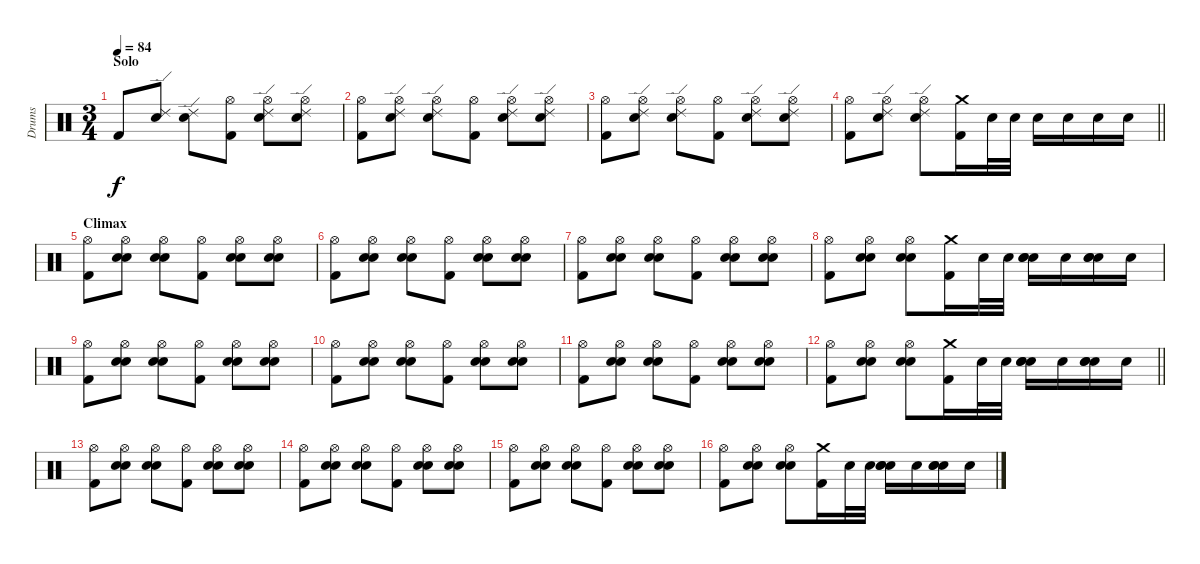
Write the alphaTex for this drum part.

\track ("Drums" "Drums") {instrument percussion}
\staff {score}
\articulation defaults
\ts (3 4)
\section ("" "Solo")
\tempo 84
\clef neutral
\ks c "Kick (hit) 2".8{dy f}
("Ride (edge) 2" "Electric Snare (hit)").8 ("Ride (edge) 2" "Electric Snare (hit)").8 ("Hi-Hat (open)" "Kick (hit) 2").8 ("Ride (edge) 2" "Hi-Hat (open)" "Electric Snare (hit)").8 ("Ride (edge) 2" "Hi-Hat (open)" "Electric Snare (hit)").8 |
("Hi-Hat (open)" "Kick (hit) 2").8 ("Ride (edge) 2" "Hi-Hat (open)" "Electric Snare (hit)").8 ("Ride (edge) 2" "Hi-Hat (open)" "Electric Snare (hit)").8 ("Hi-Hat (open)" "Kick (hit) 2").8 ("Ride (edge) 2" "Hi-Hat (open)" "Electric Snare (hit)").8 ("Ride (edge) 2" "Hi-Hat (open)" "Electric Snare (hit)").8 |
("Hi-Hat (open)" "Kick (hit) 2").8 ("Ride (edge) 2" "Hi-Hat (open)" "Electric Snare (hit)").8 ("Ride (edge) 2" "Hi-Hat (open)" "Electric Snare (hit)").8 ("Hi-Hat (open)" "Kick (hit) 2").8 ("Ride (edge) 2" "Hi-Hat (open)" "Electric Snare (hit)").8 ("Ride (edge) 2" "Hi-Hat (open)" "Electric Snare (hit)").8 |
\barLineRight lightlight
("Hi-Hat (open)" "Kick (hit) 2").8 ("Ride (edge) 2" "Hi-Hat (open)" "Electric Snare (hit)").8 ("Ride (edge) 2" "Hi-Hat (open)" "Electric Snare (hit)").8 ("Crash medium (hit)" "Kick (hit) 2").16 "Electric Snare (hit)".32 "Electric Snare (hit)".32 "Electric Snare (hit)".16 "Electric Snare (hit)".16 "Electric Snare (hit)".16 "Electric Snare (hit)".16 |
\section ("" "Climax")
("Hi-Hat (open)" "Kick (hit) 2").8 ("Hi-Hat (open)" "Hand Clap (hit)" "Hand Clap (hit)").8{bd 60} ("Hi-Hat (open)" "Hand Clap (hit)" "Hand Clap (hit)").8{bd 60} ("Hi-Hat (open)" "Kick (hit) 2").8 ("Hi-Hat (open)" "Hand Clap (hit)" "Hand Clap (hit)").8{bd 60} ("Hi-Hat (open)" "Hand Clap (hit)" "Hand Clap (hit)").8{bd 60} |
("Hi-Hat (open)" "Kick (hit) 2").8 ("Hi-Hat (open)" "Hand Clap (hit)" "Hand Clap (hit)").8{bd 60} ("Hi-Hat (open)" "Hand Clap (hit)" "Hand Clap (hit)").8{bd 60} ("Hi-Hat (open)" "Kick (hit) 2").8 ("Hi-Hat (open)" "Hand Clap (hit)" "Hand Clap (hit)").8{bd 60} ("Hi-Hat (open)" "Hand Clap (hit)" "Hand Clap (hit)").8{bd 60} |
("Hi-Hat (open)" "Kick (hit) 2").8 ("Hi-Hat (open)" "Hand Clap (hit)" "Hand Clap (hit)").8{bd 60} ("Hi-Hat (open)" "Hand Clap (hit)" "Hand Clap (hit)").8{bd 60} ("Hi-Hat (open)" "Kick (hit) 2").8 ("Hi-Hat (open)" "Hand Clap (hit)" "Hand Clap (hit)").8{bd 60} ("Hi-Hat (open)" "Hand Clap (hit)" "Hand Clap (hit)").8{bd 60} |
("Hi-Hat (open)" "Kick (hit) 2").8 ("Hi-Hat (open)" "Hand Clap (hit)" "Hand Clap (hit)").8{bd 60} ("Hi-Hat (open)" "Hand Clap (hit)" "Hand Clap (hit)").8{bd 60} ("Crash medium (hit)" "Kick (hit) 2").16 "Electric Snare (hit)".32 "Electric Snare (hit)".32 ("Hand Clap (hit)" "Hand Clap (hit)" "Electric Snare (hit)").16 "Electric Snare (hit)".16 ("Hand Clap (hit)" "Hand Clap (hit)" "Electric Snare (hit)").16 "Electric Snare (hit)".16 |
("Hi-Hat (open)" "Kick (hit) 2").8 ("Hi-Hat (open)" "Hand Clap (hit)" "Hand Clap (hit)").8{bd 60} ("Hi-Hat (open)" "Hand Clap (hit)" "Hand Clap (hit)").8{bd 60} ("Hi-Hat (open)" "Kick (hit) 2").8 ("Hi-Hat (open)" "Hand Clap (hit)" "Hand Clap (hit)").8{bd 60} ("Hi-Hat (open)" "Hand Clap (hit)" "Hand Clap (hit)").8{bd 60} |
("Hi-Hat (open)" "Kick (hit) 2").8 ("Hi-Hat (open)" "Hand Clap (hit)" "Hand Clap (hit)").8{bd 60} ("Hi-Hat (open)" "Hand Clap (hit)" "Hand Clap (hit)").8{bd 60} ("Hi-Hat (open)" "Kick (hit) 2").8 ("Hi-Hat (open)" "Hand Clap (hit)" "Hand Clap (hit)").8{bd 60} ("Hi-Hat (open)" "Hand Clap (hit)" "Hand Clap (hit)").8{bd 60} |
("Hi-Hat (open)" "Kick (hit) 2").8 ("Hi-Hat (open)" "Hand Clap (hit)" "Hand Clap (hit)").8{bd 60} ("Hi-Hat (open)" "Hand Clap (hit)" "Hand Clap (hit)").8{bd 60} ("Hi-Hat (open)" "Kick (hit) 2").8 ("Hi-Hat (open)" "Hand Clap (hit)" "Hand Clap (hit)").8{bd 60} ("Hi-Hat (open)" "Hand Clap (hit)" "Hand Clap (hit)").8{bd 60} |
\barLineRight lightlight
("Hi-Hat (open)" "Kick (hit) 2").8 ("Hi-Hat (open)" "Hand Clap (hit)" "Hand Clap (hit)").8{bd 60} ("Hi-Hat (open)" "Hand Clap (hit)" "Hand Clap (hit)").8{bd 60} ("Crash medium (hit)" "Kick (hit) 2").16 "Electric Snare (hit)".32 "Electric Snare (hit)".32 ("Hand Clap (hit)" "Hand Clap (hit)" "Electric Snare (hit)").16 "Electric Snare (hit)".16 ("Hand Clap (hit)" "Hand Clap (hit)" "Electric Snare (hit)").16 "Electric Snare (hit)".16 |
("Hi-Hat (open)" "Kick (hit) 2").8 ("Hi-Hat (open)" "Hand Clap (hit)" "Hand Clap (hit)").8{bd 60} ("Hi-Hat (open)" "Hand Clap (hit)" "Hand Clap (hit)").8{bd 60} ("Hi-Hat (open)" "Kick (hit) 2").8 ("Hi-Hat (open)" "Hand Clap (hit)" "Hand Clap (hit)").8{bd 60} ("Hi-Hat (open)" "Hand Clap (hit)" "Hand Clap (hit)").8{bd 60} |
("Hi-Hat (open)" "Kick (hit) 2").8 ("Hi-Hat (open)" "Hand Clap (hit)" "Hand Clap (hit)").8{bd 60} ("Hi-Hat (open)" "Hand Clap (hit)" "Hand Clap (hit)").8{bd 60} ("Hi-Hat (open)" "Kick (hit) 2").8 ("Hi-Hat (open)" "Hand Clap (hit)" "Hand Clap (hit)").8{bd 60} ("Hi-Hat (open)" "Hand Clap (hit)" "Hand Clap (hit)").8{bd 60} |
("Hi-Hat (open)" "Kick (hit) 2").8 ("Hi-Hat (open)" "Hand Clap (hit)" "Hand Clap (hit)").8{bd 60} ("Hi-Hat (open)" "Hand Clap (hit)" "Hand Clap (hit)").8{bd 60} ("Hi-Hat (open)" "Kick (hit) 2").8 ("Hi-Hat (open)" "Hand Clap (hit)" "Hand Clap (hit)").8{bd 60} ("Hi-Hat (open)" "Hand Clap (hit)" "Hand Clap (hit)").8{bd 60} |
("Hi-Hat (open)" "Kick (hit) 2").8 ("Hi-Hat (open)" "Hand Clap (hit)" "Hand Clap (hit)").8{bd 60} ("Hi-Hat (open)" "Hand Clap (hit)" "Hand Clap (hit)").8{bd 60} ("Crash medium (hit)" "Kick (hit) 2").16 "Electric Snare (hit)".32 "Electric Snare (hit)".32 ("Hand Clap (hit)" "Hand Clap (hit)" "Electric Snare (hit)").16 "Electric Snare (hit)".16 ("Hand Clap (hit)" "Hand Clap (hit)" "Electric Snare (hit)").16 "Electric Snare (hit)".16
